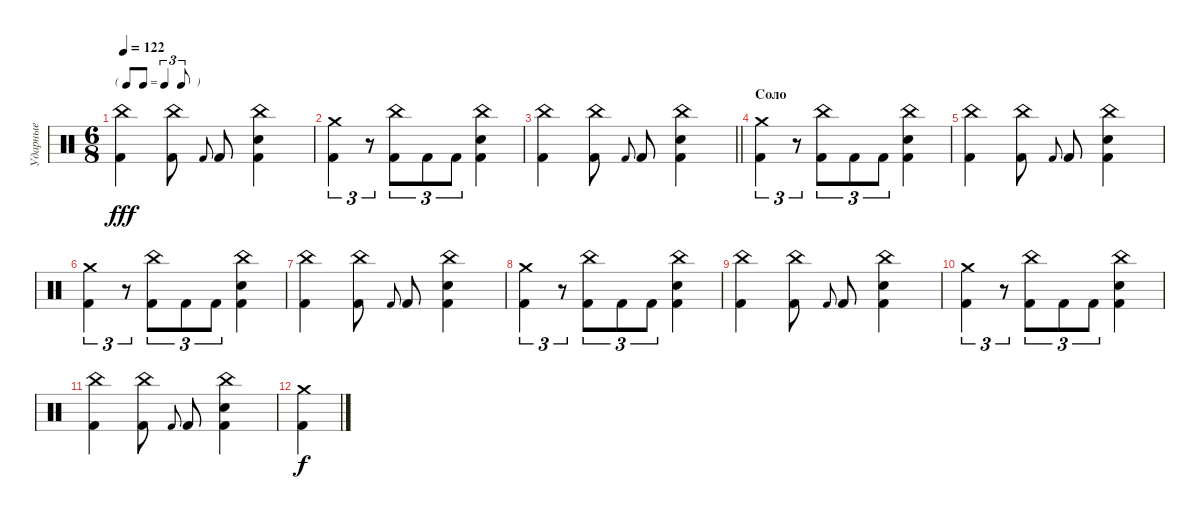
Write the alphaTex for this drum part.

\track ("Ударные" "Ударные") {instrument percussion}
\staff {score}
\articulation defaults
\ts (6 8)
\tf triplet8th
\tempo 122
\clef neutral
\ks c
("China (hit)" "Kick (hit) 2").4{dy fff} ("China (hit)" "Kick (hit) 2").8 "Kick (hit) 2".8{gr onbeat} "Kick (hit) 2".8 ("China (hit)" "Snare (hit) 2" "Kick (hit) 2").4 |
("Kick (hit) 2" "Crash medium (hit)").4{tu (3 2)} r.8{tu (3 2)} ("Kick (hit) 2" "China (hit)").8{tu (3 2)} "Kick (hit) 2".8{tu (3 2)} "Kick (hit) 2".8{tu (3 2)} ("Snare (hit) 2" "Kick (hit) 2" "China (hit)").4 |
\barLineRight lightlight
("China (hit)" "Kick (hit) 2").4 ("China (hit)" "Kick (hit) 2").8 "Kick (hit) 2".8{gr onbeat} "Kick (hit) 2".8 ("China (hit)" "Snare (hit) 2" "Kick (hit) 2").4 |
\section ("" "Соло")
("Kick (hit) 2" "Crash medium (hit)").4{tu (3 2)} r.8{tu (3 2)} ("Kick (hit) 2" "China (hit)").8{tu (3 2)} "Kick (hit) 2".8{tu (3 2)} "Kick (hit) 2".8{tu (3 2)} ("Snare (hit) 2" "Kick (hit) 2" "China (hit)").4 |
("China (hit)" "Kick (hit) 2").4 ("China (hit)" "Kick (hit) 2").8 "Kick (hit) 2".8{gr onbeat} "Kick (hit) 2".8 ("China (hit)" "Snare (hit) 2" "Kick (hit) 2").4 |
("Kick (hit) 2" "Crash medium (hit)").4{tu (3 2)} r.8{tu (3 2)} ("Kick (hit) 2" "China (hit)").8{tu (3 2)} "Kick (hit) 2".8{tu (3 2)} "Kick (hit) 2".8{tu (3 2)} ("Snare (hit) 2" "Kick (hit) 2" "China (hit)").4 |
("China (hit)" "Kick (hit) 2").4 ("China (hit)" "Kick (hit) 2").8 "Kick (hit) 2".8{gr onbeat} "Kick (hit) 2".8 ("China (hit)" "Snare (hit) 2" "Kick (hit) 2").4 |
("Kick (hit) 2" "Crash medium (hit)").4{tu (3 2)} r.8{tu (3 2)} ("Kick (hit) 2" "China (hit)").8{tu (3 2)} "Kick (hit) 2".8{tu (3 2)} "Kick (hit) 2".8{tu (3 2)} ("Snare (hit) 2" "Kick (hit) 2" "China (hit)").4 |
("China (hit)" "Kick (hit) 2").4 ("China (hit)" "Kick (hit) 2").8 "Kick (hit) 2".8{gr onbeat} "Kick (hit) 2".8 ("China (hit)" "Snare (hit) 2" "Kick (hit) 2").4 |
("Kick (hit) 2" "Crash medium (hit)").4{tu (3 2)} r.8{tu (3 2)} ("Kick (hit) 2" "China (hit)").8{tu (3 2)} "Kick (hit) 2".8{tu (3 2)} "Kick (hit) 2".8{tu (3 2)} ("Snare (hit) 2" "Kick (hit) 2" "China (hit)").4 |
("China (hit)" "Kick (hit) 2").4 ("China (hit)" "Kick (hit) 2").8 "Kick (hit) 2".8{gr onbeat} "Kick (hit) 2".8 ("China (hit)" "Snare (hit) 2" "Kick (hit) 2").4 |
("Kick (hit) 2" "Crash medium (hit)").4{dy f}
